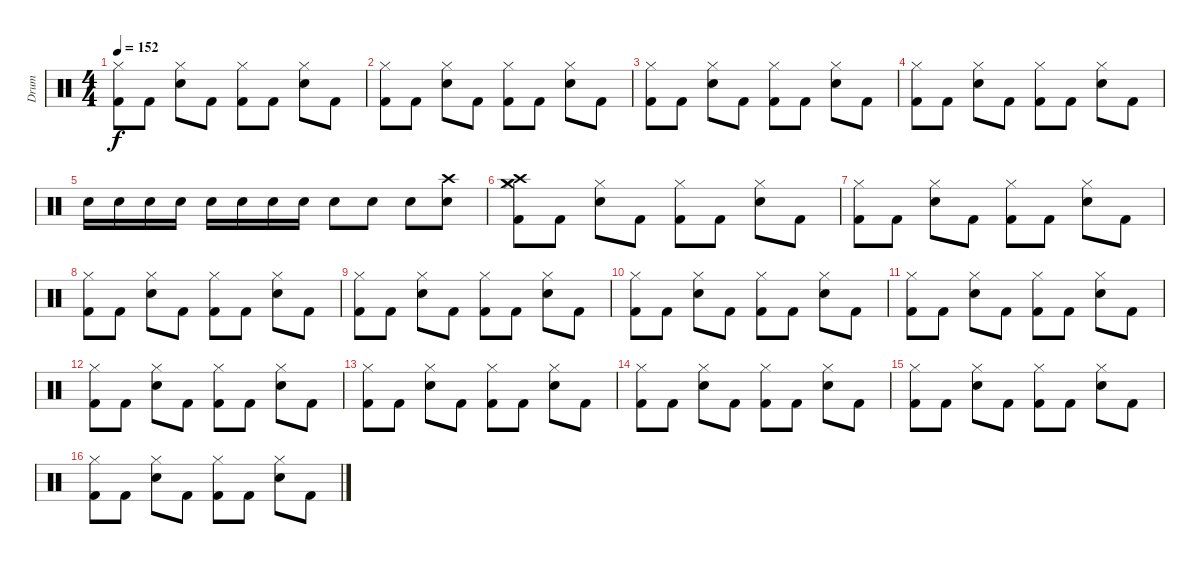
\track ("Drum" "Drum") {instrument percussion}
\staff {score}
\articulation defaults
\ts (4 4)
\tempo 152
\clef neutral
\ks c
("Hi-Hat (closed)" "Kick (hit) 2").8{dy f} "Kick (hit) 2".8 ("Hi-Hat (closed)" "Electric Snare (hit)").8 "Kick (hit) 2".8 ("Hi-Hat (closed)" "Kick (hit) 2").8 "Kick (hit) 2".8 ("Hi-Hat (closed)" "Electric Snare (hit)").8 "Kick (hit) 2".8 |
("Hi-Hat (closed)" "Kick (hit) 2").8 "Kick (hit) 2".8 ("Hi-Hat (closed)" "Electric Snare (hit)").8 "Kick (hit) 2".8 ("Hi-Hat (closed)" "Kick (hit) 2").8 "Kick (hit) 2".8 ("Hi-Hat (closed)" "Electric Snare (hit)").8 "Kick (hit) 2".8 |
("Hi-Hat (closed)" "Kick (hit) 2").8 "Kick (hit) 2".8 ("Hi-Hat (closed)" "Electric Snare (hit)").8 "Kick (hit) 2".8 ("Hi-Hat (closed)" "Kick (hit) 2").8 "Kick (hit) 2".8 ("Hi-Hat (closed)" "Electric Snare (hit)").8 "Kick (hit) 2".8 |
("Hi-Hat (closed)" "Kick (hit) 2").8 "Kick (hit) 2".8 ("Hi-Hat (closed)" "Electric Snare (hit)").8 "Kick (hit) 2".8 ("Hi-Hat (closed)" "Kick (hit) 2").8 "Kick (hit) 2".8 ("Hi-Hat (closed)" "Electric Snare (hit)").8 "Kick (hit) 2".8 |
"Electric Snare (hit)".16 "Electric Snare (hit)".16 "Electric Snare (hit)".16 "Electric Snare (hit)".16 "Electric Snare (hit)".16 "Electric Snare (hit)".16 "Electric Snare (hit)".16 "Electric Snare (hit)".16 "Electric Snare (hit)".8 "Electric Snare (hit)".8 "Electric Snare (hit)".8 ("Crash high (hit)" "Electric Snare (hit)").8 |
("Crash high (hit)" "Crash medium (hit)" "Hi-Hat (closed)" "Kick (hit) 2").8 "Kick (hit) 2".8 ("Hi-Hat (closed)" "Electric Snare (hit)").8 "Kick (hit) 2".8 ("Hi-Hat (closed)" "Kick (hit) 2").8 "Kick (hit) 2".8 ("Hi-Hat (closed)" "Electric Snare (hit)").8 "Kick (hit) 2".8 |
("Hi-Hat (closed)" "Kick (hit) 2").8 "Kick (hit) 2".8 ("Hi-Hat (closed)" "Electric Snare (hit)").8 "Kick (hit) 2".8 ("Hi-Hat (closed)" "Kick (hit) 2").8 "Kick (hit) 2".8 ("Hi-Hat (closed)" "Electric Snare (hit)").8 "Kick (hit) 2".8 |
("Hi-Hat (closed)" "Kick (hit) 2").8 "Kick (hit) 2".8 ("Hi-Hat (closed)" "Electric Snare (hit)").8 "Kick (hit) 2".8 ("Hi-Hat (closed)" "Kick (hit) 2").8 "Kick (hit) 2".8 ("Hi-Hat (closed)" "Electric Snare (hit)").8 "Kick (hit) 2".8 |
("Hi-Hat (closed)" "Kick (hit) 2").8 "Kick (hit) 2".8 ("Hi-Hat (closed)" "Electric Snare (hit)").8 "Kick (hit) 2".8 ("Hi-Hat (closed)" "Kick (hit) 2").8 "Kick (hit) 2".8 ("Hi-Hat (closed)" "Electric Snare (hit)").8 "Kick (hit) 2".8 |
("Hi-Hat (closed)" "Kick (hit) 2").8 "Kick (hit) 2".8 ("Hi-Hat (closed)" "Electric Snare (hit)").8 "Kick (hit) 2".8 ("Hi-Hat (closed)" "Kick (hit) 2").8 "Kick (hit) 2".8 ("Hi-Hat (closed)" "Electric Snare (hit)").8 "Kick (hit) 2".8 |
("Hi-Hat (closed)" "Kick (hit) 2").8 "Kick (hit) 2".8 ("Hi-Hat (closed)" "Electric Snare (hit)").8 "Kick (hit) 2".8 ("Hi-Hat (closed)" "Kick (hit) 2").8 "Kick (hit) 2".8 ("Hi-Hat (closed)" "Electric Snare (hit)").8 "Kick (hit) 2".8 |
("Hi-Hat (closed)" "Kick (hit) 2").8 "Kick (hit) 2".8 ("Hi-Hat (closed)" "Electric Snare (hit)").8 "Kick (hit) 2".8 ("Hi-Hat (closed)" "Kick (hit) 2").8 "Kick (hit) 2".8 ("Hi-Hat (closed)" "Electric Snare (hit)").8 "Kick (hit) 2".8 |
("Hi-Hat (closed)" "Kick (hit) 2").8 "Kick (hit) 2".8 ("Hi-Hat (closed)" "Electric Snare (hit)").8 "Kick (hit) 2".8 ("Hi-Hat (closed)" "Kick (hit) 2").8 "Kick (hit) 2".8 ("Hi-Hat (closed)" "Electric Snare (hit)").8 "Kick (hit) 2".8 |
("Hi-Hat (closed)" "Kick (hit) 2").8 "Kick (hit) 2".8 ("Hi-Hat (closed)" "Electric Snare (hit)").8 "Kick (hit) 2".8 ("Hi-Hat (closed)" "Kick (hit) 2").8 "Kick (hit) 2".8 ("Hi-Hat (closed)" "Electric Snare (hit)").8 "Kick (hit) 2".8 |
("Hi-Hat (closed)" "Kick (hit) 2").8 "Kick (hit) 2".8 ("Hi-Hat (closed)" "Electric Snare (hit)").8 "Kick (hit) 2".8 ("Hi-Hat (closed)" "Kick (hit) 2").8 "Kick (hit) 2".8 ("Hi-Hat (closed)" "Electric Snare (hit)").8 "Kick (hit) 2".8 |
("Hi-Hat (closed)" "Kick (hit) 2").8 "Kick (hit) 2".8 ("Hi-Hat (closed)" "Electric Snare (hit)").8 "Kick (hit) 2".8 ("Hi-Hat (closed)" "Kick (hit) 2").8 "Kick (hit) 2".8 ("Hi-Hat (closed)" "Electric Snare (hit)").8 "Kick (hit) 2".8
